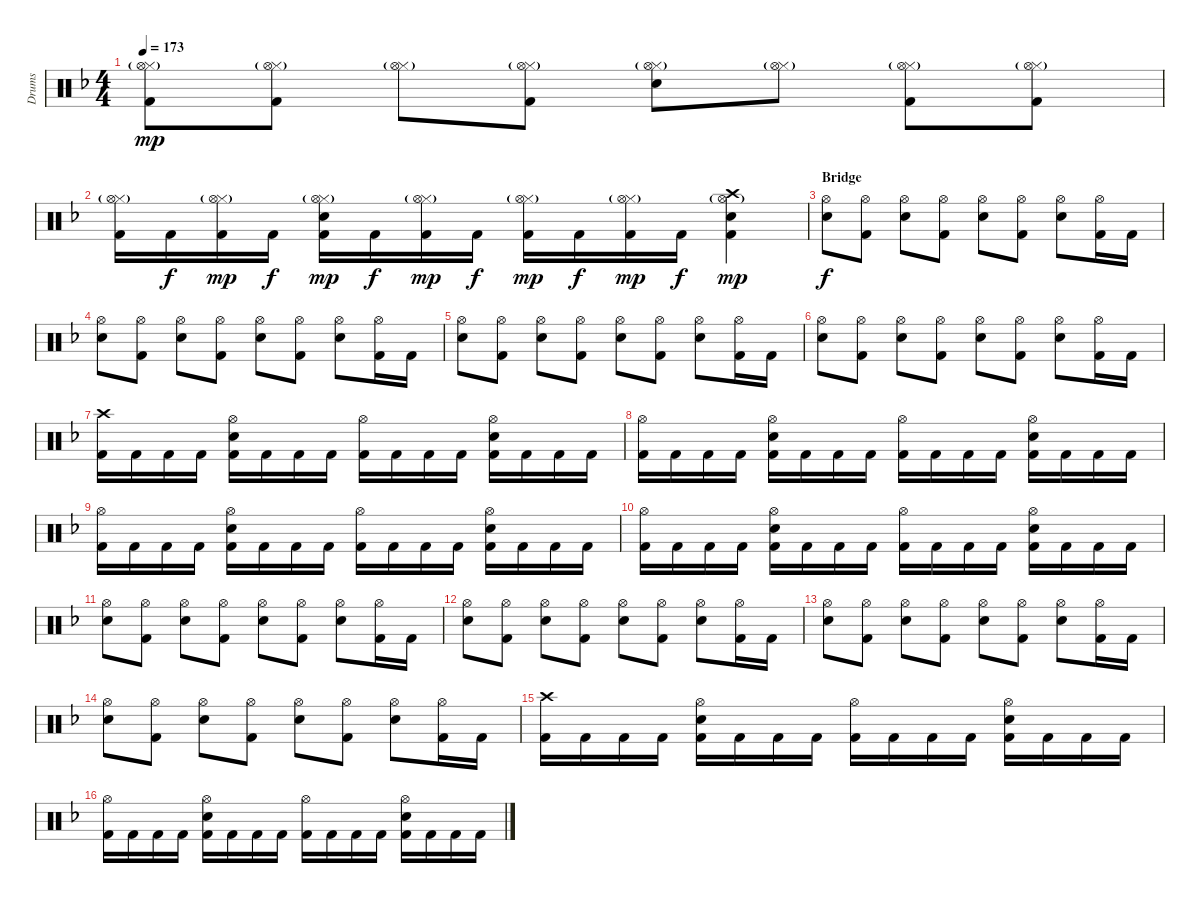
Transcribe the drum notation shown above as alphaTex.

\track ("Drums" "Drums") {instrument percussion}
\staff {score}
\articulation defaults
\ts (4 4)
\tempo 173
\clef neutral
\ks dminor
("Hi-Hat (closed)"{g} "Hi-Hat (open)"{g} "Kick (hit) 2").8{dy mp} ("Hi-Hat (closed)"{g} "Hi-Hat (open)"{g} "Kick (hit) 2").8 ("Hi-Hat (closed)"{g} "Hi-Hat (open)"{g}).8 ("Hi-Hat (closed)"{g} "Hi-Hat (open)"{g} "Kick (hit) 2").8 ("Hi-Hat (closed)"{g} "Hi-Hat (open)"{g} "Snare (hit) 2").8 ("Hi-Hat (closed)"{g} "Hi-Hat (open)"{g}).8 ("Hi-Hat (closed)"{g} "Hi-Hat (open)"{g} "Kick (hit) 2").8 ("Hi-Hat (closed)"{g} "Hi-Hat (open)"{g} "Kick (hit) 2").8 |
("Hi-Hat (closed)"{g} "Hi-Hat (open)"{g} "Kick (hit) 2").16 "Kick (hit) 2".16{dy f} ("Hi-Hat (closed)"{g} "Hi-Hat (open)"{g} "Kick (hit) 2").16{dy mp} "Kick (hit) 2".16{dy f} ("Hi-Hat (closed)"{g} "Hi-Hat (open)"{g} "Snare (hit) 2" "Kick (hit) 2").16{dy mp} "Kick (hit) 2".16{dy f} ("Hi-Hat (closed)"{g} "Hi-Hat (open)"{g} "Kick (hit) 2").16{dy mp} "Kick (hit) 2".16{dy f} ("Hi-Hat (closed)"{g} "Hi-Hat (open)"{g} "Kick (hit) 2").16{dy mp} "Kick (hit) 2".16{dy f} ("Hi-Hat (closed)"{g} "Hi-Hat (open)"{g} "Kick (hit) 2").16{dy mp} "Kick (hit) 2".16{dy f} ("Crash high (hit)" "Hi-Hat (open)"{g} "Snare (hit) 2" "Kick (hit) 2").4{dy mp} |
\section ("" "Bridge")
("Hi-Hat (open)" "Snare (hit) 2").8{dy f} ("Hi-Hat (open)" "Kick (hit) 2").8 ("Hi-Hat (open)" "Snare (hit) 2").8 ("Hi-Hat (open)" "Kick (hit) 2").8 ("Hi-Hat (open)" "Snare (hit) 2").8 ("Hi-Hat (open)" "Kick (hit) 2").8 ("Hi-Hat (open)" "Snare (hit) 2").8 ("Hi-Hat (open)" "Kick (hit) 2").16 "Kick (hit) 2".16 |
("Hi-Hat (open)" "Snare (hit) 2").8 ("Hi-Hat (open)" "Kick (hit) 2").8 ("Hi-Hat (open)" "Snare (hit) 2").8 ("Hi-Hat (open)" "Kick (hit) 2").8 ("Hi-Hat (open)" "Snare (hit) 2").8 ("Hi-Hat (open)" "Kick (hit) 2").8 ("Hi-Hat (open)" "Snare (hit) 2").8 ("Hi-Hat (open)" "Kick (hit) 2").16 "Kick (hit) 2".16 |
("Hi-Hat (open)" "Snare (hit) 2").8 ("Hi-Hat (open)" "Kick (hit) 2").8 ("Hi-Hat (open)" "Snare (hit) 2").8 ("Hi-Hat (open)" "Kick (hit) 2").8 ("Hi-Hat (open)" "Snare (hit) 2").8 ("Hi-Hat (open)" "Kick (hit) 2").8 ("Hi-Hat (open)" "Snare (hit) 2").8 ("Hi-Hat (open)" "Kick (hit) 2").16 "Kick (hit) 2".16 |
("Hi-Hat (open)" "Snare (hit) 2").8 ("Hi-Hat (open)" "Kick (hit) 2").8 ("Hi-Hat (open)" "Snare (hit) 2").8 ("Hi-Hat (open)" "Kick (hit) 2").8 ("Hi-Hat (open)" "Snare (hit) 2").8 ("Hi-Hat (open)" "Kick (hit) 2").8 ("Hi-Hat (open)" "Snare (hit) 2").8 ("Hi-Hat (open)" "Kick (hit) 2").16 "Kick (hit) 2".16 |
("Crash high (hit)" "Kick (hit) 2").16 "Kick (hit) 2".16 "Kick (hit) 2".16 "Kick (hit) 2".16 ("Hi-Hat (open)" "Snare (hit) 2" "Kick (hit) 2").16 "Kick (hit) 2".16 "Kick (hit) 2".16 "Kick (hit) 2".16 ("Hi-Hat (open)" "Kick (hit) 2").16 "Kick (hit) 2".16 "Kick (hit) 2".16 "Kick (hit) 2".16 ("Hi-Hat (open)" "Snare (hit) 2" "Kick (hit) 2").16 "Kick (hit) 2".16 "Kick (hit) 2".16 "Kick (hit) 2".16 |
("Hi-Hat (open)" "Kick (hit) 2").16 "Kick (hit) 2".16 "Kick (hit) 2".16 "Kick (hit) 2".16 ("Hi-Hat (open)" "Snare (hit) 2" "Kick (hit) 2").16 "Kick (hit) 2".16 "Kick (hit) 2".16 "Kick (hit) 2".16 ("Hi-Hat (open)" "Kick (hit) 2").16 "Kick (hit) 2".16 "Kick (hit) 2".16 "Kick (hit) 2".16 ("Hi-Hat (open)" "Snare (hit) 2" "Kick (hit) 2").16 "Kick (hit) 2".16 "Kick (hit) 2".16 "Kick (hit) 2".16 |
("Hi-Hat (open)" "Kick (hit) 2").16 "Kick (hit) 2".16 "Kick (hit) 2".16 "Kick (hit) 2".16 ("Hi-Hat (open)" "Snare (hit) 2" "Kick (hit) 2").16 "Kick (hit) 2".16 "Kick (hit) 2".16 "Kick (hit) 2".16 ("Hi-Hat (open)" "Kick (hit) 2").16 "Kick (hit) 2".16 "Kick (hit) 2".16 "Kick (hit) 2".16 ("Hi-Hat (open)" "Snare (hit) 2" "Kick (hit) 2").16 "Kick (hit) 2".16 "Kick (hit) 2".16 "Kick (hit) 2".16 |
("Hi-Hat (open)" "Kick (hit) 2").16 "Kick (hit) 2".16 "Kick (hit) 2".16 "Kick (hit) 2".16 ("Hi-Hat (open)" "Snare (hit) 2" "Kick (hit) 2").16 "Kick (hit) 2".16 "Kick (hit) 2".16 "Kick (hit) 2".16 ("Hi-Hat (open)" "Kick (hit) 2").16 "Kick (hit) 2".16 "Kick (hit) 2".16 "Kick (hit) 2".16 ("Hi-Hat (open)" "Snare (hit) 2" "Kick (hit) 2").16 "Kick (hit) 2".16 "Kick (hit) 2".16 "Kick (hit) 2".16 |
("Hi-Hat (open)" "Snare (hit) 2").8 ("Hi-Hat (open)" "Kick (hit) 2").8 ("Hi-Hat (open)" "Snare (hit) 2").8 ("Hi-Hat (open)" "Kick (hit) 2").8 ("Hi-Hat (open)" "Snare (hit) 2").8 ("Hi-Hat (open)" "Kick (hit) 2").8 ("Hi-Hat (open)" "Snare (hit) 2").8 ("Hi-Hat (open)" "Kick (hit) 2").16 "Kick (hit) 2".16 |
("Hi-Hat (open)" "Snare (hit) 2").8 ("Hi-Hat (open)" "Kick (hit) 2").8 ("Hi-Hat (open)" "Snare (hit) 2").8 ("Hi-Hat (open)" "Kick (hit) 2").8 ("Hi-Hat (open)" "Snare (hit) 2").8 ("Hi-Hat (open)" "Kick (hit) 2").8 ("Hi-Hat (open)" "Snare (hit) 2").8 ("Hi-Hat (open)" "Kick (hit) 2").16 "Kick (hit) 2".16 |
("Hi-Hat (open)" "Snare (hit) 2").8 ("Hi-Hat (open)" "Kick (hit) 2").8 ("Hi-Hat (open)" "Snare (hit) 2").8 ("Hi-Hat (open)" "Kick (hit) 2").8 ("Hi-Hat (open)" "Snare (hit) 2").8 ("Hi-Hat (open)" "Kick (hit) 2").8 ("Hi-Hat (open)" "Snare (hit) 2").8 ("Hi-Hat (open)" "Kick (hit) 2").16 "Kick (hit) 2".16 |
("Hi-Hat (open)" "Snare (hit) 2").8 ("Hi-Hat (open)" "Kick (hit) 2").8 ("Hi-Hat (open)" "Snare (hit) 2").8 ("Hi-Hat (open)" "Kick (hit) 2").8 ("Hi-Hat (open)" "Snare (hit) 2").8 ("Hi-Hat (open)" "Kick (hit) 2").8 ("Hi-Hat (open)" "Snare (hit) 2").8 ("Hi-Hat (open)" "Kick (hit) 2").16 "Kick (hit) 2".16 |
("Crash high (hit)" "Kick (hit) 2").16 "Kick (hit) 2".16 "Kick (hit) 2".16 "Kick (hit) 2".16 ("Hi-Hat (open)" "Snare (hit) 2" "Kick (hit) 2").16 "Kick (hit) 2".16 "Kick (hit) 2".16 "Kick (hit) 2".16 ("Hi-Hat (open)" "Kick (hit) 2").16 "Kick (hit) 2".16 "Kick (hit) 2".16 "Kick (hit) 2".16 ("Hi-Hat (open)" "Snare (hit) 2" "Kick (hit) 2").16 "Kick (hit) 2".16 "Kick (hit) 2".16 "Kick (hit) 2".16 |
("Hi-Hat (open)" "Kick (hit) 2").16 "Kick (hit) 2".16 "Kick (hit) 2".16 "Kick (hit) 2".16 ("Hi-Hat (open)" "Snare (hit) 2" "Kick (hit) 2").16 "Kick (hit) 2".16 "Kick (hit) 2".16 "Kick (hit) 2".16 ("Hi-Hat (open)" "Kick (hit) 2").16 "Kick (hit) 2".16 "Kick (hit) 2".16 "Kick (hit) 2".16 ("Hi-Hat (open)" "Snare (hit) 2" "Kick (hit) 2").16 "Kick (hit) 2".16 "Kick (hit) 2".16 "Kick (hit) 2".16
